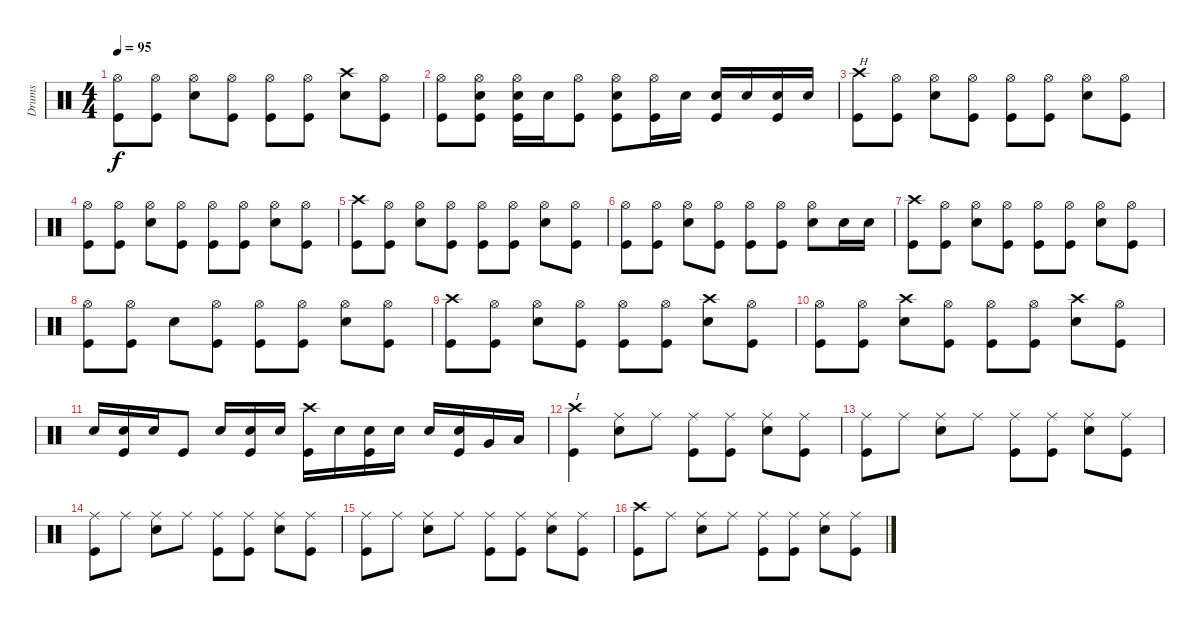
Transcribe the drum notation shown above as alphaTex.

\track ("Drums" "Drums") {instrument percussion}
\staff {score}
\articulation defaults
\ts (4 4)
\tempo 95
\clef neutral
\ks c
("Hi-Hat (open)" "Kick (hit)").8{dy f} ("Hi-Hat (open)" "Kick (hit)").8 ("Hi-Hat (open)" "Electric Snare (hit)").8 ("Hi-Hat (open)" "Kick (hit)").8 ("Hi-Hat (open)" "Kick (hit)").8 ("Hi-Hat (open)" "Kick (hit)").8 ("Crash high (hit)" "Electric Snare (hit)").8 ("Hi-Hat (open)" "Kick (hit)").8 |
("Hi-Hat (open)" "Kick (hit)").8 ("Hi-Hat (open)" "Electric Snare (hit)" "Kick (hit)").8 ("Hi-Hat (open)" "Electric Snare (hit)" "Kick (hit)").16 "Electric Snare (hit)".16 ("Hi-Hat (open)" "Kick (hit)").8 ("Hi-Hat (open)" "Electric Snare (hit)" "Kick (hit)").8 ("Hi-Hat (open)" "Kick (hit)").16 "Electric Snare (hit)".16 ("Electric Snare (hit)" "Kick (hit)").16 "Electric Snare (hit)".16 ("Electric Snare (hit)" "Kick (hit)").16 "Electric Snare (hit)".16 |
("Crash high (hit)" "Kick (hit)").8{txt "H"} ("Hi-Hat (open)" "Kick (hit)").8 ("Hi-Hat (open)" "Electric Snare (hit)").8 ("Hi-Hat (open)" "Kick (hit)").8 ("Hi-Hat (open)" "Kick (hit)").8 ("Hi-Hat (open)" "Kick (hit)").8 ("Hi-Hat (open)" "Electric Snare (hit)").8 ("Hi-Hat (open)" "Kick (hit)").8 |
("Hi-Hat (open)" "Kick (hit)").8 ("Hi-Hat (open)" "Kick (hit)").8 ("Hi-Hat (open)" "Electric Snare (hit)").8 ("Hi-Hat (open)" "Kick (hit)").8 ("Hi-Hat (open)" "Kick (hit)").8 ("Hi-Hat (open)" "Kick (hit)").8 ("Hi-Hat (open)" "Electric Snare (hit)").8 ("Hi-Hat (open)" "Kick (hit)").8 |
("Crash high (hit)" "Kick (hit)").8 ("Hi-Hat (open)" "Kick (hit)").8 ("Hi-Hat (open)" "Electric Snare (hit)").8 ("Hi-Hat (open)" "Kick (hit)").8 ("Hi-Hat (open)" "Kick (hit)").8 ("Hi-Hat (open)" "Kick (hit)").8 ("Hi-Hat (open)" "Electric Snare (hit)").8 ("Hi-Hat (open)" "Kick (hit)").8 |
("Hi-Hat (open)" "Kick (hit)").8 ("Hi-Hat (open)" "Kick (hit)").8 ("Hi-Hat (open)" "Electric Snare (hit)").8 ("Hi-Hat (open)" "Kick (hit)").8 ("Hi-Hat (open)" "Kick (hit)").8 ("Hi-Hat (open)" "Kick (hit)").8 ("Hi-Hat (open)" "Electric Snare (hit)").8 "Electric Snare (hit)".16 "Electric Snare (hit)".16 |
("Crash high (hit)" "Kick (hit)").8 ("Hi-Hat (open)" "Kick (hit)").8 ("Hi-Hat (open)" "Electric Snare (hit)").8 ("Hi-Hat (open)" "Kick (hit)").8 ("Hi-Hat (open)" "Kick (hit)").8 ("Hi-Hat (open)" "Kick (hit)").8 ("Hi-Hat (open)" "Electric Snare (hit)").8 ("Hi-Hat (open)" "Kick (hit)").8 |
("Hi-Hat (open)" "Kick (hit)").8 ("Hi-Hat (open)" "Kick (hit)").8 "Electric Snare (hit)".8 ("Hi-Hat (open)" "Kick (hit)").8 ("Hi-Hat (open)" "Kick (hit)").8 ("Hi-Hat (open)" "Kick (hit)").8 ("Hi-Hat (open)" "Electric Snare (hit)").8 ("Hi-Hat (open)" "Kick (hit)").8 |
("Crash high (hit)" "Kick (hit)").8 ("Hi-Hat (open)" "Kick (hit)").8 ("Hi-Hat (open)" "Electric Snare (hit)").8 ("Hi-Hat (open)" "Kick (hit)").8 ("Hi-Hat (open)" "Kick (hit)").8 ("Hi-Hat (open)" "Kick (hit)").8 ("Crash high (hit)" "Electric Snare (hit)").8 ("Hi-Hat (open)" "Kick (hit)").8 |
("Hi-Hat (open)" "Kick (hit)").8 ("Hi-Hat (open)" "Kick (hit)").8 ("Crash high (hit)" "Electric Snare (hit)").8 ("Hi-Hat (open)" "Kick (hit)").8 ("Hi-Hat (open)" "Kick (hit)").8 ("Hi-Hat (open)" "Kick (hit)").8 ("Crash high (hit)" "Electric Snare (hit)").8 ("Hi-Hat (open)" "Kick (hit)").8 |
"Electric Snare (hit)".16 ("Electric Snare (hit)" "Kick (hit)").16 "Electric Snare (hit)".16 "Kick (hit)".8 "Electric Snare (hit)".16 ("Electric Snare (hit)" "Kick (hit)").16 "Electric Snare (hit)".16 ("Crash high (hit)" "Kick (hit)").16 "Electric Snare (hit)".16 ("Electric Snare (hit)" "Kick (hit)").16 "Electric Snare (hit)".16 "Electric Snare (hit)".16 ("Electric Snare (hit)" "Kick (hit)").16 "Very Low Tom (hit)".16 "Low Floor Tom (hit)".16 |
("Crash high (hit)" "Kick (hit)").4{txt "I"} ("Ride (middle)" "Electric Snare (hit)").8 "Ride (middle)".8 ("Ride (middle)" "Kick (hit)").8 ("Ride (middle)" "Kick (hit)").8 ("Ride (middle)" "Electric Snare (hit)").8 ("Ride (middle)" "Kick (hit)").8 |
("Ride (middle)" "Kick (hit)").8 "Ride (middle)".8 ("Ride (middle)" "Electric Snare (hit)").8 "Ride (middle)".8 ("Ride (middle)" "Kick (hit)").8 ("Ride (middle)" "Kick (hit)").8 ("Ride (middle)" "Electric Snare (hit)").8 ("Ride (middle)" "Kick (hit)").8 |
("Ride (middle)" "Kick (hit)").8 "Ride (middle)".8 ("Ride (middle)" "Electric Snare (hit)").8 "Ride (middle)".8 ("Ride (middle)" "Kick (hit)").8 ("Ride (middle)" "Kick (hit)").8 ("Ride (middle)" "Electric Snare (hit)").8 ("Ride (middle)" "Kick (hit)").8 |
("Ride (middle)" "Kick (hit)").8 "Ride (middle)".8 ("Ride (middle)" "Electric Snare (hit)").8 "Ride (middle)".8 ("Ride (middle)" "Kick (hit)").8 ("Ride (middle)" "Kick (hit)").8 ("Ride (middle)" "Electric Snare (hit)").8 ("Ride (middle)" "Kick (hit)").8 |
("Crash high (hit)" "Kick (hit)").8 "Ride (middle)".8 ("Ride (middle)" "Electric Snare (hit)").8 "Ride (middle)".8 ("Ride (middle)" "Kick (hit)").8 ("Ride (middle)" "Kick (hit)").8 ("Ride (middle)" "Electric Snare (hit)").8 ("Ride (middle)" "Kick (hit)").8
